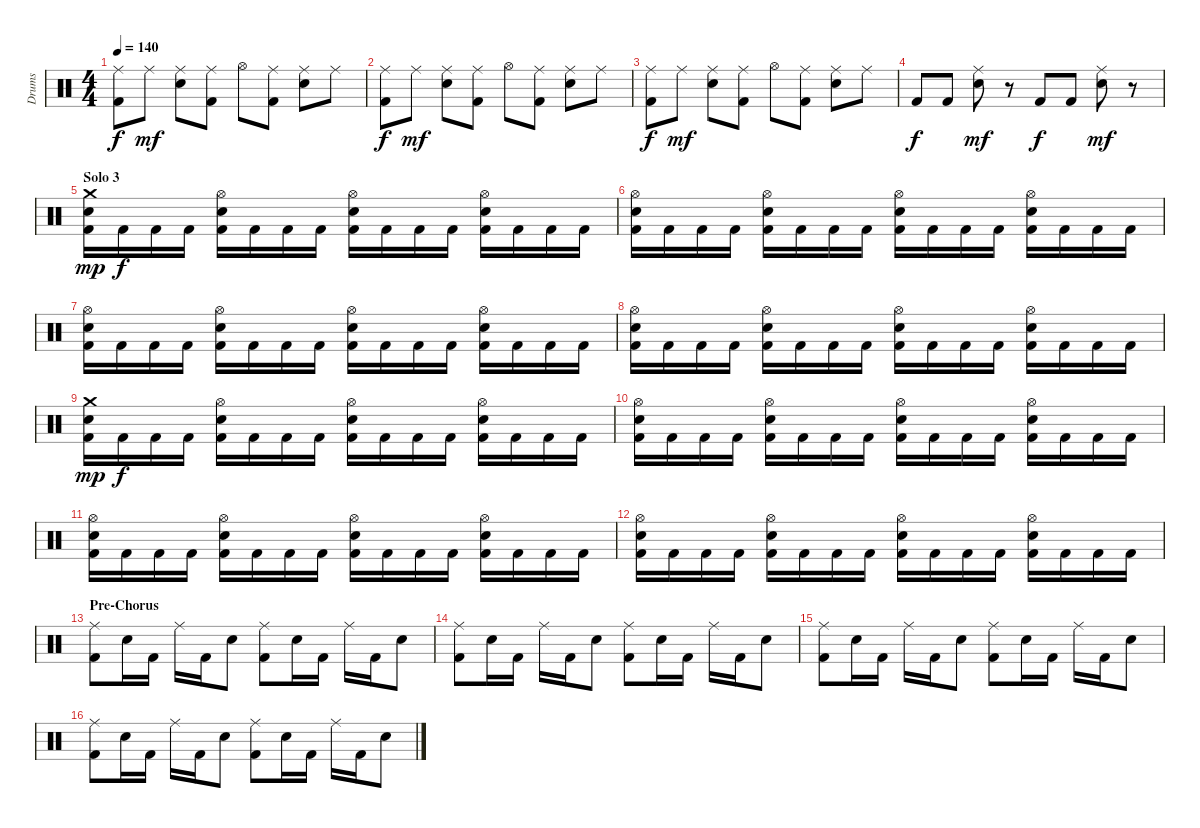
\track ("Drums" "Drums") {instrument percussion}
\staff {score}
\articulation defaults
\ts (4 4)
\tempo 140
\clef neutral
\ks c
("Ride (middle)" "Kick (hit) 2").8{dy f} "Ride (middle)".8{dy mf} ("Ride (middle)" "Electric Snare (hit)").8 ("Ride (middle)" "Kick (hit) 2").8 "Hi-Hat (open)".8 ("Ride (middle)" "Kick (hit) 2").8 ("Ride (middle)" "Electric Snare (hit)").8 "Ride (middle)".8 |
("Ride (middle)" "Kick (hit) 2").8{dy f} "Ride (middle)".8{dy mf} ("Ride (middle)" "Electric Snare (hit)").8 ("Ride (middle)" "Kick (hit) 2").8 "Hi-Hat (open)".8 ("Ride (middle)" "Kick (hit) 2").8 ("Ride (middle)" "Electric Snare (hit)").8 "Ride (middle)".8 |
("Ride (middle)" "Kick (hit) 2").8{dy f} "Ride (middle)".8{dy mf} ("Ride (middle)" "Electric Snare (hit)").8 ("Ride (middle)" "Kick (hit) 2").8 "Hi-Hat (open)".8 ("Ride (middle)" "Kick (hit) 2").8 ("Ride (middle)" "Electric Snare (hit)").8 "Ride (middle)".8 |
"Kick (hit) 2".8{dy f} "Kick (hit) 2".8 ("Ride (middle)" "Electric Snare (hit)").8{dy mf} r.8 "Kick (hit) 2".8{dy f} "Kick (hit) 2".8 ("Ride (middle)" "Electric Snare (hit)").8{dy mf} r.8 |
\section ("" "Solo 3")
("Crash medium (hit)" "Electric Snare (hit)" "Kick (hit) 2").16{dy mp} "Kick (hit) 2".16{dy f} "Kick (hit) 2".16 "Kick (hit) 2".16 ("Hi-Hat (open)" "Electric Snare (hit)" "Kick (hit) 2").16 "Kick (hit) 2".16 "Kick (hit) 2".16 "Kick (hit) 2".16 ("Hi-Hat (open)" "Electric Snare (hit)" "Kick (hit) 2").16 "Kick (hit) 2".16 "Kick (hit) 2".16 "Kick (hit) 2".16 ("Hi-Hat (open)" "Electric Snare (hit)" "Kick (hit) 2").16 "Kick (hit) 2".16 "Kick (hit) 2".16 "Kick (hit) 2".16 |
("Hi-Hat (open)" "Electric Snare (hit)" "Kick (hit) 2").16 "Kick (hit) 2".16 "Kick (hit) 2".16 "Kick (hit) 2".16 ("Hi-Hat (open)" "Electric Snare (hit)" "Kick (hit) 2").16 "Kick (hit) 2".16 "Kick (hit) 2".16 "Kick (hit) 2".16 ("Hi-Hat (open)" "Electric Snare (hit)" "Kick (hit) 2").16 "Kick (hit) 2".16 "Kick (hit) 2".16 "Kick (hit) 2".16 ("Hi-Hat (open)" "Electric Snare (hit)" "Kick (hit) 2").16 "Kick (hit) 2".16 "Kick (hit) 2".16 "Kick (hit) 2".16 |
("Hi-Hat (open)" "Electric Snare (hit)" "Kick (hit) 2").16 "Kick (hit) 2".16 "Kick (hit) 2".16 "Kick (hit) 2".16 ("Hi-Hat (open)" "Electric Snare (hit)" "Kick (hit) 2").16 "Kick (hit) 2".16 "Kick (hit) 2".16 "Kick (hit) 2".16 ("Hi-Hat (open)" "Electric Snare (hit)" "Kick (hit) 2").16 "Kick (hit) 2".16 "Kick (hit) 2".16 "Kick (hit) 2".16 ("Hi-Hat (open)" "Electric Snare (hit)" "Kick (hit) 2").16 "Kick (hit) 2".16 "Kick (hit) 2".16 "Kick (hit) 2".16 |
("Hi-Hat (open)" "Electric Snare (hit)" "Kick (hit) 2").16 "Kick (hit) 2".16 "Kick (hit) 2".16 "Kick (hit) 2".16 ("Hi-Hat (open)" "Electric Snare (hit)" "Kick (hit) 2").16 "Kick (hit) 2".16 "Kick (hit) 2".16 "Kick (hit) 2".16 ("Hi-Hat (open)" "Electric Snare (hit)" "Kick (hit) 2").16 "Kick (hit) 2".16 "Kick (hit) 2".16 "Kick (hit) 2".16 ("Hi-Hat (open)" "Electric Snare (hit)" "Kick (hit) 2").16 "Kick (hit) 2".16 "Kick (hit) 2".16 "Kick (hit) 2".16 |
("Crash medium (hit)" "Electric Snare (hit)" "Kick (hit) 2").16{dy mp} "Kick (hit) 2".16{dy f} "Kick (hit) 2".16 "Kick (hit) 2".16 ("Hi-Hat (open)" "Electric Snare (hit)" "Kick (hit) 2").16 "Kick (hit) 2".16 "Kick (hit) 2".16 "Kick (hit) 2".16 ("Hi-Hat (open)" "Electric Snare (hit)" "Kick (hit) 2").16 "Kick (hit) 2".16 "Kick (hit) 2".16 "Kick (hit) 2".16 ("Hi-Hat (open)" "Electric Snare (hit)" "Kick (hit) 2").16 "Kick (hit) 2".16 "Kick (hit) 2".16 "Kick (hit) 2".16 |
("Hi-Hat (open)" "Electric Snare (hit)" "Kick (hit) 2").16 "Kick (hit) 2".16 "Kick (hit) 2".16 "Kick (hit) 2".16 ("Hi-Hat (open)" "Electric Snare (hit)" "Kick (hit) 2").16 "Kick (hit) 2".16 "Kick (hit) 2".16 "Kick (hit) 2".16 ("Hi-Hat (open)" "Electric Snare (hit)" "Kick (hit) 2").16 "Kick (hit) 2".16 "Kick (hit) 2".16 "Kick (hit) 2".16 ("Hi-Hat (open)" "Electric Snare (hit)" "Kick (hit) 2").16 "Kick (hit) 2".16 "Kick (hit) 2".16 "Kick (hit) 2".16 |
("Hi-Hat (open)" "Electric Snare (hit)" "Kick (hit) 2").16 "Kick (hit) 2".16 "Kick (hit) 2".16 "Kick (hit) 2".16 ("Hi-Hat (open)" "Electric Snare (hit)" "Kick (hit) 2").16 "Kick (hit) 2".16 "Kick (hit) 2".16 "Kick (hit) 2".16 ("Hi-Hat (open)" "Electric Snare (hit)" "Kick (hit) 2").16 "Kick (hit) 2".16 "Kick (hit) 2".16 "Kick (hit) 2".16 ("Hi-Hat (open)" "Electric Snare (hit)" "Kick (hit) 2").16 "Kick (hit) 2".16 "Kick (hit) 2".16 "Kick (hit) 2".16 |
("Hi-Hat (open)" "Electric Snare (hit)" "Kick (hit) 2").16 "Kick (hit) 2".16 "Kick (hit) 2".16 "Kick (hit) 2".16 ("Hi-Hat (open)" "Electric Snare (hit)" "Kick (hit) 2").16 "Kick (hit) 2".16 "Kick (hit) 2".16 "Kick (hit) 2".16 ("Hi-Hat (open)" "Electric Snare (hit)" "Kick (hit) 2").16 "Kick (hit) 2".16 "Kick (hit) 2".16 "Kick (hit) 2".16 ("Hi-Hat (open)" "Electric Snare (hit)" "Kick (hit) 2").16 "Kick (hit) 2".16 "Kick (hit) 2".16 "Kick (hit) 2".16 |
\section ("" "Pre-Chorus")
("Ride (middle)" "Kick (hit) 2").8 "Electric Snare (hit)".16 "Kick (hit) 2".16 "Ride (middle)".16 "Kick (hit) 2".16 "Electric Snare (hit)".8 ("Ride (middle)" "Kick (hit) 2").8 "Electric Snare (hit)".16 "Kick (hit) 2".16 "Ride (middle)".16 "Kick (hit) 2".16 "Electric Snare (hit)".8 |
("Ride (middle)" "Kick (hit) 2").8 "Electric Snare (hit)".16 "Kick (hit) 2".16 "Ride (middle)".16 "Kick (hit) 2".16 "Electric Snare (hit)".8 ("Ride (middle)" "Kick (hit) 2").8 "Electric Snare (hit)".16 "Kick (hit) 2".16 "Ride (middle)".16 "Kick (hit) 2".16 "Electric Snare (hit)".8 |
("Ride (middle)" "Kick (hit) 2").8 "Electric Snare (hit)".16 "Kick (hit) 2".16 "Ride (middle)".16 "Kick (hit) 2".16 "Electric Snare (hit)".8 ("Ride (middle)" "Kick (hit) 2").8 "Electric Snare (hit)".16 "Kick (hit) 2".16 "Ride (middle)".16 "Kick (hit) 2".16 "Electric Snare (hit)".8 |
("Ride (middle)" "Kick (hit) 2").8 "Electric Snare (hit)".16 "Kick (hit) 2".16 "Ride (middle)".16 "Kick (hit) 2".16 "Electric Snare (hit)".8 ("Ride (middle)" "Kick (hit) 2").8 "Electric Snare (hit)".16 "Kick (hit) 2".16 "Ride (middle)".16 "Kick (hit) 2".16 "Electric Snare (hit)".8
